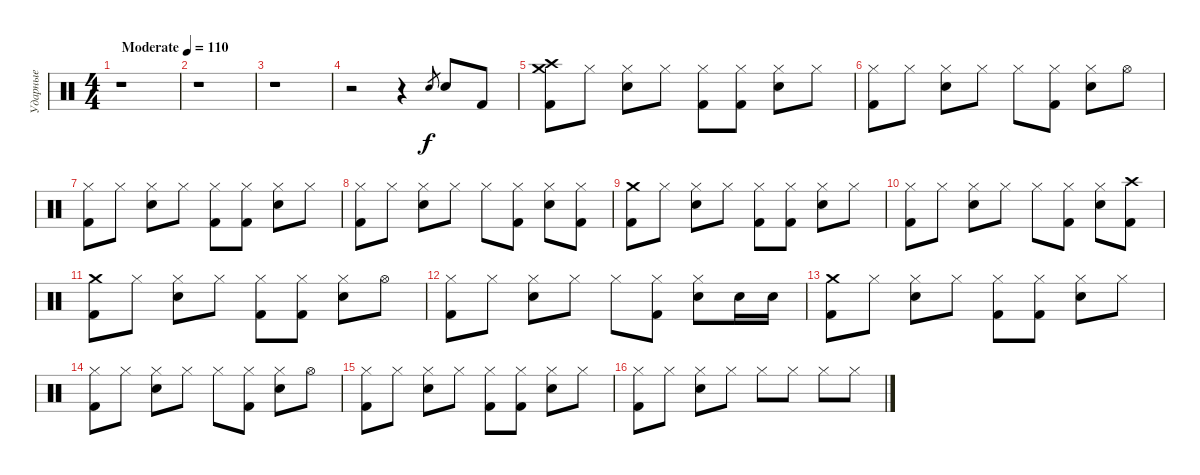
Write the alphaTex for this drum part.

\track ("Ударные" "Ударные") {instrument percussion}
\staff {score}
\articulation defaults
\ts (4 4)
\tempo (110 "Moderate")
\clef neutral
\ks c
r.1{dy f} |
r.1 |
r.1 |
r.2 r.4 "Electric Snare (hit)".8{gr} "Electric Snare (hit)".8 "Kick (hit) 2".8 |
("Crash medium (hit)" "Crash high (hit)" "Kick (hit) 2").8 "Hi-Hat (closed)".8 ("Hi-Hat (closed)" "Electric Snare (hit)").8 "Hi-Hat (closed)".8 ("Hi-Hat (closed)" "Kick (hit) 2").8 ("Hi-Hat (closed)" "Kick (hit) 2").8 ("Hi-Hat (closed)" "Electric Snare (hit)").8 "Hi-Hat (closed)".8 |
("Hi-Hat (closed)" "Kick (hit) 2").8 "Hi-Hat (closed)".8 ("Hi-Hat (closed)" "Electric Snare (hit)").8 "Hi-Hat (closed)".8 "Hi-Hat (closed)".8 ("Hi-Hat (closed)" "Kick (hit) 2").8 ("Hi-Hat (closed)" "Electric Snare (hit)").8 "Hi-Hat (open)".8 |
("Hi-Hat (closed)" "Kick (hit) 2").8 "Hi-Hat (closed)".8 ("Hi-Hat (closed)" "Electric Snare (hit)").8 "Hi-Hat (closed)".8 ("Hi-Hat (closed)" "Kick (hit) 2").8 ("Hi-Hat (closed)" "Kick (hit) 2").8 ("Hi-Hat (closed)" "Electric Snare (hit)").8 "Hi-Hat (closed)".8 |
("Hi-Hat (closed)" "Kick (hit) 2").8 "Hi-Hat (closed)".8 ("Hi-Hat (closed)" "Electric Snare (hit)").8 "Hi-Hat (closed)".8 "Hi-Hat (closed)".8 ("Hi-Hat (closed)" "Kick (hit) 2").8 ("Hi-Hat (closed)" "Electric Snare (hit)").8 ("Hi-Hat (closed)" "Kick (hit) 2").8 |
("Crash medium (hit)" "Kick (hit) 2").8 "Hi-Hat (closed)".8 ("Hi-Hat (closed)" "Electric Snare (hit)").8 "Hi-Hat (closed)".8 ("Hi-Hat (closed)" "Kick (hit) 2").8 ("Hi-Hat (closed)" "Kick (hit) 2").8 ("Hi-Hat (closed)" "Electric Snare (hit)").8 "Hi-Hat (closed)".8 |
("Hi-Hat (closed)" "Kick (hit) 2").8 "Hi-Hat (closed)".8 ("Hi-Hat (closed)" "Electric Snare (hit)").8 "Hi-Hat (closed)".8 "Hi-Hat (closed)".8 ("Hi-Hat (closed)" "Kick (hit) 2").8 ("Hi-Hat (closed)" "Electric Snare (hit)").8 ("Crash high (hit)" "Kick (hit) 2").8 |
("Crash medium (hit)" "Kick (hit) 2").8 "Hi-Hat (closed)".8 ("Hi-Hat (closed)" "Electric Snare (hit)").8 "Hi-Hat (closed)".8 ("Hi-Hat (closed)" "Kick (hit) 2").8 ("Hi-Hat (closed)" "Kick (hit) 2").8 ("Hi-Hat (closed)" "Electric Snare (hit)").8 "Hi-Hat (open)".8 |
("Hi-Hat (closed)" "Kick (hit) 2").8 "Hi-Hat (closed)".8 ("Hi-Hat (closed)" "Electric Snare (hit)").8 "Hi-Hat (closed)".8 "Hi-Hat (closed)".8 ("Hi-Hat (closed)" "Kick (hit) 2").8 ("Hi-Hat (closed)" "Electric Snare (hit)").8 "Electric Snare (hit)".16 "Electric Snare (hit)".16 |
("Crash medium (hit)" "Kick (hit) 2").8 "Hi-Hat (closed)".8 ("Hi-Hat (closed)" "Electric Snare (hit)").8 "Hi-Hat (closed)".8 ("Hi-Hat (closed)" "Kick (hit) 2").8 ("Hi-Hat (closed)" "Kick (hit) 2").8 ("Hi-Hat (closed)" "Electric Snare (hit)").8 "Hi-Hat (closed)".8 |
("Hi-Hat (closed)" "Kick (hit) 2").8 "Hi-Hat (closed)".8 ("Hi-Hat (closed)" "Electric Snare (hit)").8 "Hi-Hat (closed)".8 "Hi-Hat (closed)".8 ("Hi-Hat (closed)" "Kick (hit) 2").8 ("Hi-Hat (closed)" "Electric Snare (hit)").8 "Hi-Hat (open)".8 |
("Hi-Hat (closed)" "Kick (hit) 2").8 "Hi-Hat (closed)".8 ("Hi-Hat (closed)" "Electric Snare (hit)").8 "Hi-Hat (closed)".8 ("Hi-Hat (closed)" "Kick (hit) 2").8 ("Hi-Hat (closed)" "Kick (hit) 2").8 ("Hi-Hat (closed)" "Electric Snare (hit)").8 "Hi-Hat (closed)".8 |
("Hi-Hat (closed)" "Kick (hit) 2").8 "Hi-Hat (closed)".8 ("Hi-Hat (closed)" "Electric Snare (hit)").8 "Hi-Hat (closed)".8 "Hi-Hat (closed)".8 "Hi-Hat (closed)".8 "Hi-Hat (closed)".8 "Hi-Hat (closed)".8
